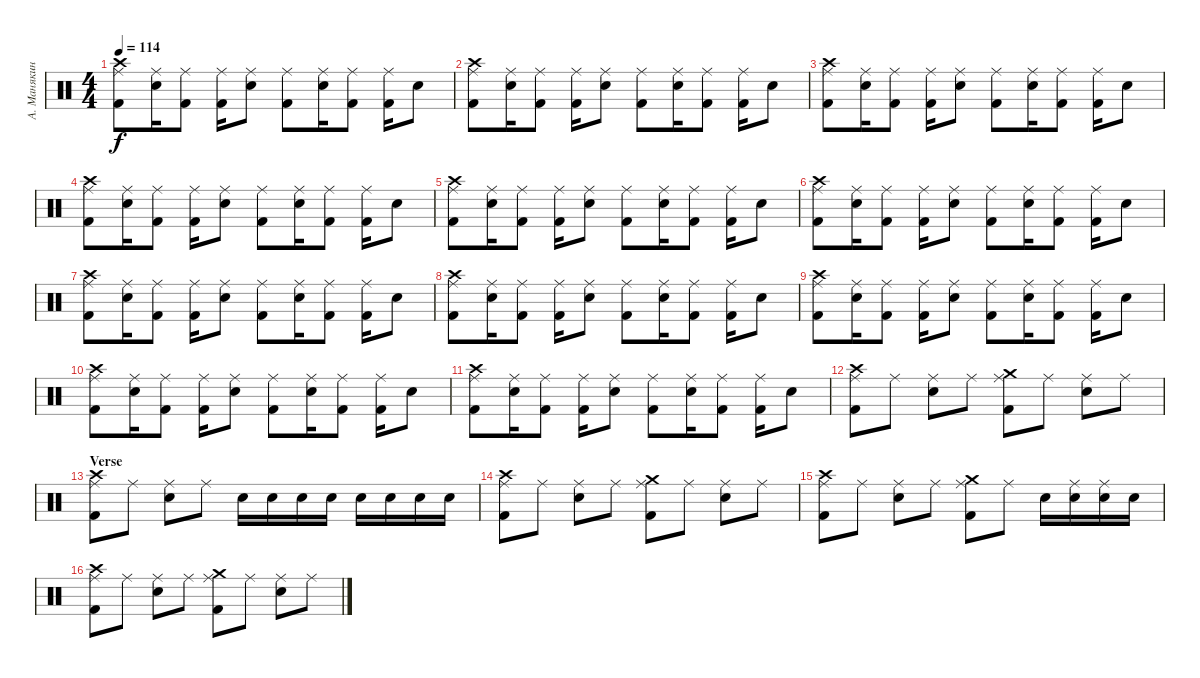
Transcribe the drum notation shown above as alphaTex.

\track ("А. Манякин" "А. Манякин") {instrument percussion}
\staff {score}
\articulation defaults
\ts (4 4)
\tempo 114
\clef neutral
\ks c
("Kick (hit) 2" "Crash high (hit)" "Ride (middle)").8{dy f} ("Electric Snare (hit)" "Ride (middle)").16 ("Kick (hit) 2" "Ride (middle)").8 ("Kick (hit) 2" "Ride (middle)").16 ("Electric Snare (hit)" "Ride (middle)").8 ("Kick (hit) 2" "Ride (middle)").8 ("Electric Snare (hit)" "Ride (middle)").16 ("Kick (hit) 2" "Ride (middle)").8 ("Kick (hit) 2" "Ride (middle)").16 "Electric Snare (hit)".8 |
("Kick (hit) 2" "Crash high (hit)" "Ride (middle)").8 ("Electric Snare (hit)" "Ride (middle)").16 ("Kick (hit) 2" "Ride (middle)").8 ("Kick (hit) 2" "Ride (middle)").16 ("Electric Snare (hit)" "Ride (middle)").8 ("Kick (hit) 2" "Ride (middle)").8 ("Electric Snare (hit)" "Ride (middle)").16 ("Kick (hit) 2" "Ride (middle)").8 ("Kick (hit) 2" "Ride (middle)").16 "Electric Snare (hit)".8 |
("Kick (hit) 2" "Crash high (hit)" "Ride (middle)").8 ("Electric Snare (hit)" "Ride (middle)").16 ("Kick (hit) 2" "Ride (middle)").8 ("Kick (hit) 2" "Ride (middle)").16 ("Electric Snare (hit)" "Ride (middle)").8 ("Kick (hit) 2" "Ride (middle)").8 ("Electric Snare (hit)" "Ride (middle)").16 ("Kick (hit) 2" "Ride (middle)").8 ("Kick (hit) 2" "Ride (middle)").16 "Electric Snare (hit)".8 |
("Kick (hit) 2" "Crash high (hit)" "Ride (middle)").8 ("Electric Snare (hit)" "Ride (middle)").16 ("Kick (hit) 2" "Ride (middle)").8 ("Kick (hit) 2" "Ride (middle)").16 ("Electric Snare (hit)" "Ride (middle)").8 ("Kick (hit) 2" "Ride (middle)").8 ("Electric Snare (hit)" "Ride (middle)").16 ("Kick (hit) 2" "Ride (middle)").8 ("Kick (hit) 2" "Ride (middle)").16 "Electric Snare (hit)".8 |
("Kick (hit) 2" "Crash high (hit)" "Ride (middle)").8 ("Electric Snare (hit)" "Ride (middle)").16 ("Kick (hit) 2" "Ride (middle)").8 ("Kick (hit) 2" "Ride (middle)").16 ("Electric Snare (hit)" "Ride (middle)").8 ("Kick (hit) 2" "Ride (middle)").8 ("Electric Snare (hit)" "Ride (middle)").16 ("Kick (hit) 2" "Ride (middle)").8 ("Kick (hit) 2" "Ride (middle)").16 "Electric Snare (hit)".8 |
("Kick (hit) 2" "Crash high (hit)" "Ride (middle)").8 ("Electric Snare (hit)" "Ride (middle)").16 ("Kick (hit) 2" "Ride (middle)").8 ("Kick (hit) 2" "Ride (middle)").16 ("Electric Snare (hit)" "Ride (middle)").8 ("Kick (hit) 2" "Ride (middle)").8 ("Electric Snare (hit)" "Ride (middle)").16 ("Kick (hit) 2" "Ride (middle)").8 ("Kick (hit) 2" "Ride (middle)").16 "Electric Snare (hit)".8 |
("Kick (hit) 2" "Crash high (hit)" "Ride (middle)").8 ("Electric Snare (hit)" "Ride (middle)").16 ("Kick (hit) 2" "Ride (middle)").8 ("Kick (hit) 2" "Ride (middle)").16 ("Electric Snare (hit)" "Ride (middle)").8 ("Kick (hit) 2" "Ride (middle)").8 ("Electric Snare (hit)" "Ride (middle)").16 ("Kick (hit) 2" "Ride (middle)").8 ("Kick (hit) 2" "Ride (middle)").16 "Electric Snare (hit)".8 |
("Kick (hit) 2" "Crash high (hit)" "Ride (middle)").8 ("Electric Snare (hit)" "Ride (middle)").16 ("Kick (hit) 2" "Ride (middle)").8 ("Kick (hit) 2" "Ride (middle)").16 ("Electric Snare (hit)" "Ride (middle)").8 ("Kick (hit) 2" "Ride (middle)").8 ("Electric Snare (hit)" "Ride (middle)").16 ("Kick (hit) 2" "Ride (middle)").8 ("Kick (hit) 2" "Ride (middle)").16 "Electric Snare (hit)".8 |
("Kick (hit) 2" "Crash high (hit)" "Ride (middle)").8 ("Electric Snare (hit)" "Ride (middle)").16 ("Kick (hit) 2" "Ride (middle)").8 ("Kick (hit) 2" "Ride (middle)").16 ("Electric Snare (hit)" "Ride (middle)").8 ("Kick (hit) 2" "Ride (middle)").8 ("Electric Snare (hit)" "Ride (middle)").16 ("Kick (hit) 2" "Ride (middle)").8 ("Kick (hit) 2" "Ride (middle)").16 "Electric Snare (hit)".8 |
("Kick (hit) 2" "Crash high (hit)" "Ride (middle)").8 ("Electric Snare (hit)" "Ride (middle)").16 ("Kick (hit) 2" "Ride (middle)").8 ("Kick (hit) 2" "Ride (middle)").16 ("Electric Snare (hit)" "Ride (middle)").8 ("Kick (hit) 2" "Ride (middle)").8 ("Electric Snare (hit)" "Ride (middle)").16 ("Kick (hit) 2" "Ride (middle)").8 ("Kick (hit) 2" "Ride (middle)").16 "Electric Snare (hit)".8 |
("Kick (hit) 2" "Crash high (hit)" "Ride (middle)").8 ("Electric Snare (hit)" "Ride (middle)").16 ("Kick (hit) 2" "Ride (middle)").8 ("Kick (hit) 2" "Ride (middle)").16 ("Electric Snare (hit)" "Ride (middle)").8 ("Kick (hit) 2" "Ride (middle)").8 ("Electric Snare (hit)" "Ride (middle)").16 ("Kick (hit) 2" "Ride (middle)").8 ("Kick (hit) 2" "Ride (middle)").16 "Electric Snare (hit)".8 |
("Kick (hit) 2" "Crash high (hit)" "Ride (middle)").8 "Ride (middle)".8 ("Electric Snare (hit)" "Ride (middle)").8 "Ride (middle)".8 ("Kick (hit) 2" "Crash medium (hit)" "Ride (middle)").8 "Ride (middle)".8 ("Electric Snare (hit)" "Ride (middle)").8 "Ride (middle)".8 |
\section ("" "Verse")
("Kick (hit) 2" "Crash high (hit)" "Ride (middle)").8 "Ride (middle)".8 ("Electric Snare (hit)" "Ride (middle)").8 "Ride (middle)".8 "Electric Snare (hit)".16 "Electric Snare (hit)".16 "Electric Snare (hit)".16 "Electric Snare (hit)".16 "Electric Snare (hit)".16 "Electric Snare (hit)".16 "Electric Snare (hit)".16 "Electric Snare (hit)".16 |
("Kick (hit) 2" "Crash high (hit)" "Ride (middle)").8 "Ride (middle)".8 ("Electric Snare (hit)" "Ride (middle)").8 "Ride (middle)".8 ("Kick (hit) 2" "Crash medium (hit)" "Ride (middle)").8 "Ride (middle)".8 ("Electric Snare (hit)" "Ride (middle)").8 "Ride (middle)".8 |
("Kick (hit) 2" "Crash high (hit)" "Ride (middle)").8 "Ride (middle)".8 ("Electric Snare (hit)" "Ride (middle)").8 "Ride (middle)".8 ("Kick (hit) 2" "Crash medium (hit)" "Ride (middle)").8 "Ride (middle)".8 "Electric Snare (hit)".16 ("Electric Snare (hit)" "Ride (middle)").16 ("Electric Snare (hit)" "Ride (middle)").16 "Electric Snare (hit)".16 |
("Kick (hit) 2" "Crash high (hit)" "Ride (middle)").8 "Ride (middle)".8 ("Electric Snare (hit)" "Ride (middle)").8 "Ride (middle)".8 ("Kick (hit) 2" "Crash medium (hit)" "Ride (middle)").8 "Ride (middle)".8 ("Electric Snare (hit)" "Ride (middle)").8 "Ride (middle)".8
